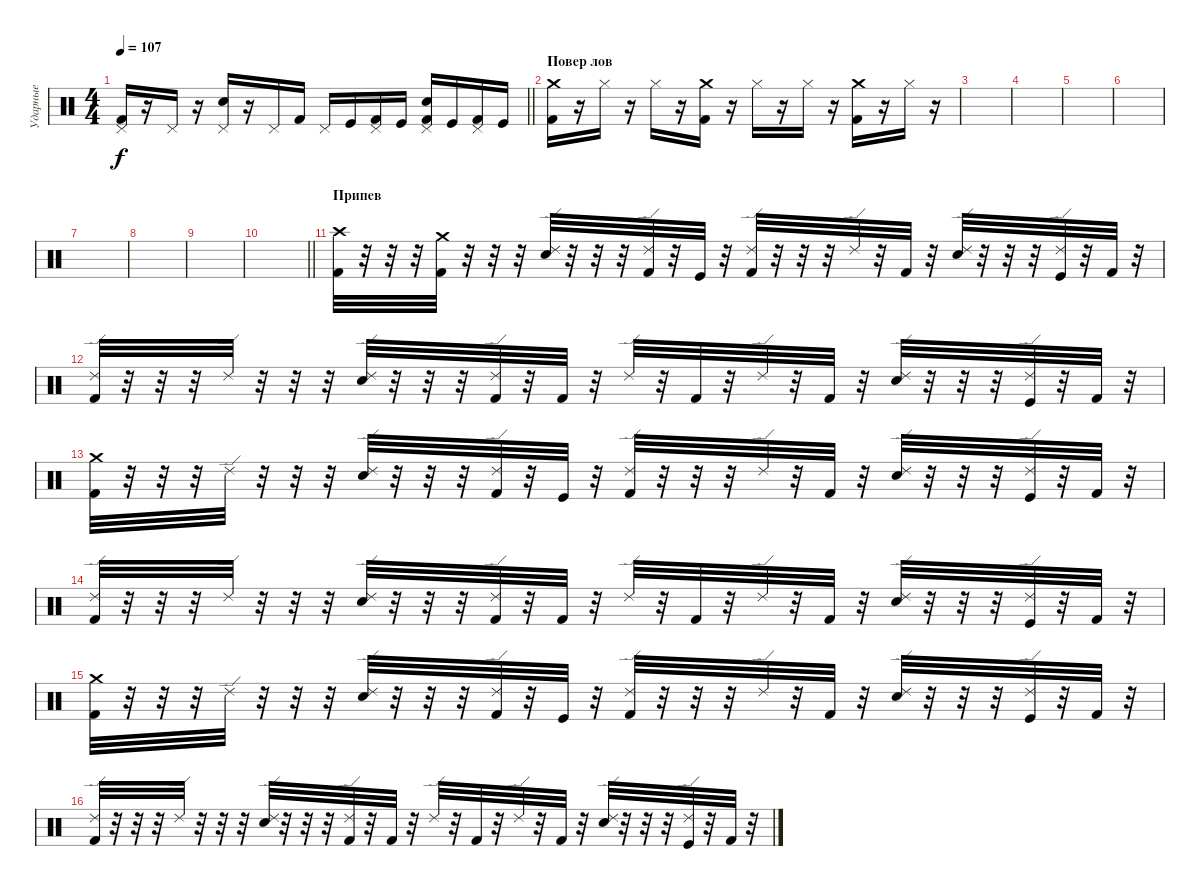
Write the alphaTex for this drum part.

\track ("Ударные" "Ударные") {instrument percussion}
\staff {score}
\articulation defaults
\ts (4 4)
\tempo 107
\clef neutral
\barLineRight lightlight
\ks c
("Pedal Hi-Hat (hit)" "Kick (hit) 2").16{dy f} r.16 "Pedal Hi-Hat (hit)".16 r.16 ("Pedal Hi-Hat (hit)" "Electric Snare (hit)").16 r.16 "Pedal Hi-Hat (hit)".16 "Kick (hit) 2".16 "Pedal Hi-Hat (hit)".16 "Kick (hit)".16 ("Pedal Hi-Hat (hit)" "Kick (hit) 2").16 "Kick (hit)".16 ("Pedal Hi-Hat (hit)" "Kick (hit) 2" "Electric Snare (hit)").16 "Kick (hit)".16 ("Pedal Hi-Hat (hit)" "Kick (hit) 2").16 "Kick (hit)".16 |
\section ("" "Повер лов")
("Crash medium (hit)" "Kick (hit) 2").16 r.16 "Hi-Hat (closed)".16 r.16 "Hi-Hat (closed)".16 r.16 ("Crash medium (hit)" "Kick (hit) 2").16 r.16 "Hi-Hat (closed)".16 r.16 "Hi-Hat (closed)".16 r.16 ("Crash medium (hit)" "Kick (hit) 2").16 r.16 "Hi-Hat (closed)".16 r.16 |
|
|
|
|
|
|
|
\barLineRight lightlight
|
\section ("" "Припев")
("Crash high (hit)" "Kick (hit) 2").32 r.32 r.32 r.32 ("Crash medium (hit)" "Kick (hit) 2").32 r.32 r.32 r.32 ("Ride (edge) 2" "Electric Snare (hit)").32 r.32 r.32 r.32 ("Ride (edge) 2" "Kick (hit) 2").32 r.32 "Kick (hit)".32 r.32 ("Ride (edge) 2" "Kick (hit) 2").32 r.32 r.32 r.32 "Ride (edge) 2".32 r.32 "Kick (hit) 2".32 r.32 ("Ride (edge) 2" "Electric Snare (hit)").32 r.32 r.32 r.32 ("Ride (edge) 2" "Kick (hit)").32 r.32 "Kick (hit) 2".32 r.32 |
("Ride (edge) 2" "Kick (hit) 2").32 r.32 r.32 r.32 "Ride (edge) 2".32 r.32 r.32 r.32 ("Ride (edge) 2" "Electric Snare (hit)").32 r.32 r.32 r.32 ("Ride (edge) 2" "Kick (hit) 2").32 r.32 "Kick (hit) 2".32 r.32 "Ride (edge) 2".32 r.32 "Kick (hit) 2".32 r.32 "Ride (edge) 2".32 r.32 "Kick (hit) 2".32 r.32 ("Ride (edge) 2" "Electric Snare (hit)").32 r.32 r.32 r.32 ("Ride (edge) 2" "Kick (hit)").32 r.32 "Kick (hit) 2".32 r.32 |
("Crash medium (hit)" "Kick (hit) 2").32 r.32 r.32 r.32 "Ride (edge) 2".32 r.32 r.32 r.32 ("Ride (edge) 2" "Electric Snare (hit)").32 r.32 r.32 r.32 ("Ride (edge) 2" "Kick (hit) 2").32 r.32 "Kick (hit)".32 r.32 ("Ride (edge) 2" "Kick (hit) 2").32 r.32 r.32 r.32 "Ride (edge) 2".32 r.32 "Kick (hit) 2".32 r.32 ("Ride (edge) 2" "Electric Snare (hit)").32 r.32 r.32 r.32 ("Ride (edge) 2" "Kick (hit)").32 r.32 "Kick (hit) 2".32 r.32 |
("Ride (edge) 2" "Kick (hit) 2").32 r.32 r.32 r.32 "Ride (edge) 2".32 r.32 r.32 r.32 ("Ride (edge) 2" "Electric Snare (hit)").32 r.32 r.32 r.32 ("Ride (edge) 2" "Kick (hit) 2").32 r.32 "Kick (hit) 2".32 r.32 "Ride (edge) 2".32 r.32 "Kick (hit) 2".32 r.32 "Ride (edge) 2".32 r.32 "Kick (hit) 2".32 r.32 ("Ride (edge) 2" "Electric Snare (hit)").32 r.32 r.32 r.32 ("Ride (edge) 2" "Kick (hit)").32 r.32 "Kick (hit) 2".32 r.32 |
("Crash medium (hit)" "Kick (hit) 2").32 r.32 r.32 r.32 "Ride (edge) 2".32 r.32 r.32 r.32 ("Ride (edge) 2" "Electric Snare (hit)").32 r.32 r.32 r.32 ("Ride (edge) 2" "Kick (hit) 2").32 r.32 "Kick (hit)".32 r.32 ("Ride (edge) 2" "Kick (hit) 2").32 r.32 r.32 r.32 "Ride (edge) 2".32 r.32 "Kick (hit) 2".32 r.32 ("Ride (edge) 2" "Electric Snare (hit)").32 r.32 r.32 r.32 ("Ride (edge) 2" "Kick (hit)").32 r.32 "Kick (hit) 2".32 r.32 |
("Ride (edge) 2" "Kick (hit) 2").32 r.32 r.32 r.32 "Ride (edge) 2".32 r.32 r.32 r.32 ("Ride (edge) 2" "Electric Snare (hit)").32 r.32 r.32 r.32 ("Ride (edge) 2" "Kick (hit) 2").32 r.32 "Kick (hit) 2".32 r.32 "Ride (edge) 2".32 r.32 "Kick (hit) 2".32 r.32 "Ride (edge) 2".32 r.32 "Kick (hit) 2".32 r.32 ("Ride (edge) 2" "Electric Snare (hit)").32 r.32 r.32 r.32 ("Ride (edge) 2" "Kick (hit)").32 r.32 "Kick (hit) 2".32 r.32
